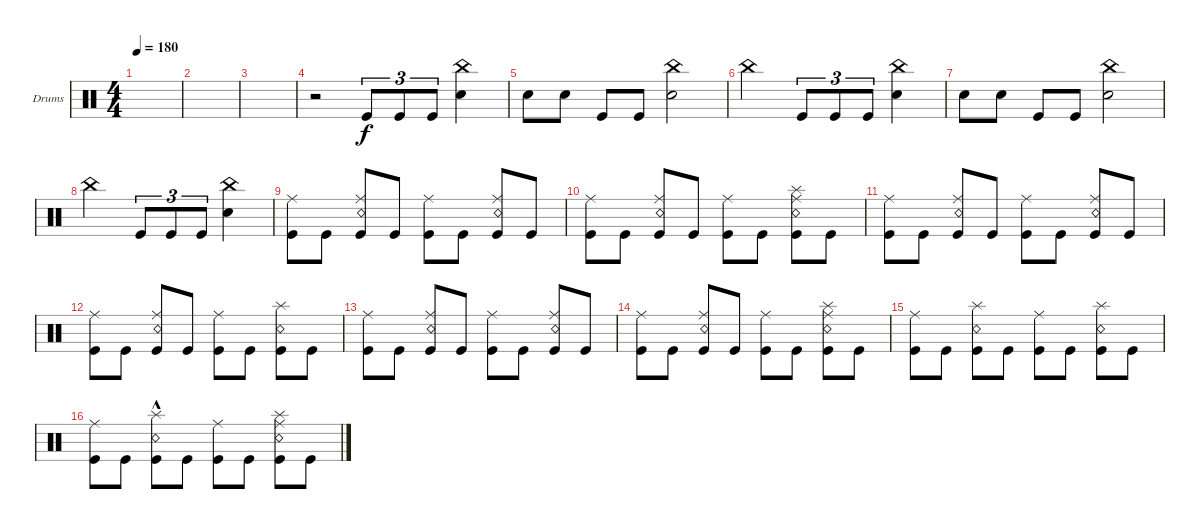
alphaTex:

\defaultSystemsLayout 4
\bracketExtendMode groupsimilarinstruments
\firstSystemTrackNameOrientation horizontal
\otherSystemsTrackNameOrientation horizontal
\track ("Drumkit" "Drums") {instrument percussion}
\staff {score}
\articulation defaults
\ts (4 4)
\tempo 180
\clef neutral
\scale
0.474178
\ks c
|
\scale
0.262911 |
\scale
0.262911 |
\scale
0.333333 r.2 "Kick (hit)".8{tu (3 2)} "Kick (hit)".8{tu (3 2)} "Kick (hit)".8{tu (3 2)} ("Snare (hit) 2" "China (hit)").4 |
\scale
0.333333 "Snare (hit) 2".8 "Snare (hit) 2".8 "Kick (hit)".8 "Kick (hit)".8 ("Snare (hit) 2" "China (hit)").2 |
\scale
0.333333 "China (hit)".2 "Kick (hit)".8{tu (3 2)} "Kick (hit)".8{tu (3 2)} "Kick (hit)".8{tu (3 2)} ("Snare (hit) 2" "China (hit)").4 |
\scale
0.311111 "Snare (hit) 2".8 "Snare (hit) 2".8 "Kick (hit)".8 "Kick (hit)".8 ("Snare (hit) 2" "China (hit)").2 |
\scale
0.311111 "China (hit)".2 "Kick (hit)".8{tu (3 2)} "Kick (hit)".8{tu (3 2)} "Kick (hit)".8{tu (3 2)} ("Snare (hit) 2" "China (hit)").4 |
\scale
0.377778 ("Kick (hit)" "Ride (middle)").8 "Kick (hit)".8 ("Kick (hit)" "Ride (middle)" "Snare (rim shot)").8 "Kick (hit)".8 ("Kick (hit)" "Ride (middle)").8 "Kick (hit)".8 ("Kick (hit)" "Ride (middle)" "Snare (rim shot)").8 "Kick (hit)".8 |
\scale
0.333333 ("Kick (hit)" "Ride (middle)").8 "Kick (hit)".8 ("Kick (hit)" "Ride (middle)" "Snare (rim shot)").8 "Kick (hit)".8 ("Kick (hit)" "Ride (middle)").8 "Kick (hit)".8 ("Kick (hit)" "Ride (middle)" "Snare (rim shot)" "Splash (hit)").8 "Kick (hit)".8 |
\scale
0.333333 ("Kick (hit)" "Ride (middle)").8 "Kick (hit)".8 ("Kick (hit)" "Ride (middle)" "Snare (rim shot)").8 "Kick (hit)".8 ("Kick (hit)" "Ride (middle)").8 "Kick (hit)".8 ("Kick (hit)" "Ride (middle)" "Snare (rim shot)").8 "Kick (hit)".8 |
\scale
0.333333 ("Kick (hit)" "Ride (middle)").8 "Kick (hit)".8 ("Kick (hit)" "Ride (middle)" "Snare (rim shot)").8 "Kick (hit)".8 ("Kick (hit)" "Ride (middle)").8 "Kick (hit)".8 ("Kick (hit)" "Snare (rim shot)" "Splash (hit)").8 "Kick (hit)".8 |
\scale
0.333333 ("Kick (hit)" "Ride (middle)").8 "Kick (hit)".8 ("Kick (hit)" "Ride (middle)" "Snare (rim shot)").8 "Kick (hit)".8 ("Kick (hit)" "Ride (middle)").8 "Kick (hit)".8 ("Kick (hit)" "Ride (middle)" "Snare (rim shot)").8 "Kick (hit)".8 |
\scale
0.333333 ("Kick (hit)" "Ride (middle)").8 "Kick (hit)".8 ("Kick (hit)" "Ride (middle)" "Snare (rim shot)").8 "Kick (hit)".8 ("Kick (hit)" "Ride (middle)").8 "Kick (hit)".8 ("Kick (hit)" "Ride (middle)" "Snare (rim shot)" "Splash (hit)").8 "Kick (hit)".8 |
\scale
0.333333 ("Kick (hit)" "Ride (middle)").8 "Kick (hit)".8 ("Kick (hit)" "Snare (rim shot)" "Splash (hit)").8 "Kick (hit)".8 ("Kick (hit)" "Ride (middle)").8 "Kick (hit)".8 ("Kick (hit)" "Snare (rim shot)" "Splash (hit)").8 "Kick (hit)".8 |
\scale
0.333333 ("Kick (hit)" "Ride (middle)").8 "Kick (hit)".8 ("Kick (hit)" "Snare (rim shot)" "Splash (hit)"{hac}).8 "Kick (hit)".8 ("Kick (hit)" "Ride (middle)").8 "Kick (hit)".8 ("Kick (hit)" "Ride (middle)" "Snare (rim shot)" "Splash (hit)").8 "Kick (hit)".8
